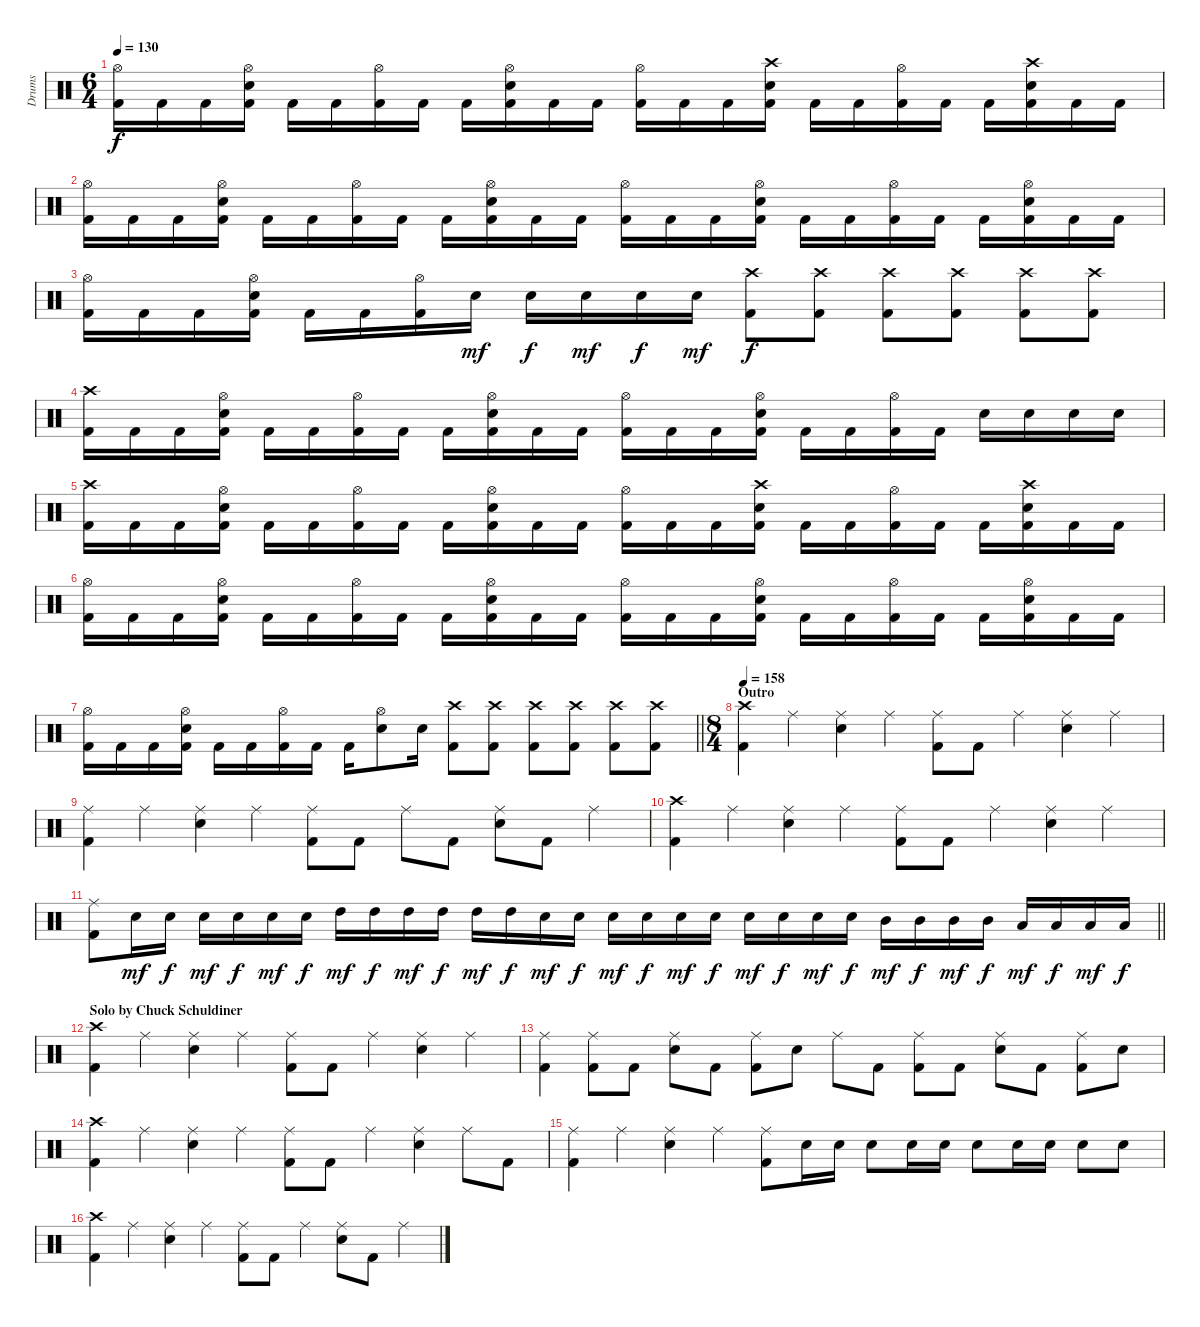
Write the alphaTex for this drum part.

\track ("Drums" "Drums") {instrument percussion}
\staff {score}
\articulation defaults
\ts (6 4)
\tempo 130
\clef neutral
\ks c
("Hi-Hat (open)" "Kick (hit) 2").16{dy f} "Kick (hit) 2".16 "Kick (hit) 2".16 ("Hi-Hat (open)" "Snare (hit) 2" "Kick (hit) 2").16 "Kick (hit) 2".16 "Kick (hit) 2".16 ("Hi-Hat (open)" "Kick (hit) 2").16 "Kick (hit) 2".16 "Kick (hit) 2".16 ("Hi-Hat (open)" "Snare (hit) 2" "Kick (hit) 2").16 "Kick (hit) 2".16 "Kick (hit) 2".16 ("Hi-Hat (open)" "Kick (hit) 2").16 "Kick (hit) 2".16 "Kick (hit) 2".16 ("Crash high (hit)" "Snare (hit) 2" "Kick (hit) 2").16 "Kick (hit) 2".16 "Kick (hit) 2".16 ("Hi-Hat (open)" "Kick (hit) 2").16 "Kick (hit) 2".16 "Kick (hit) 2".16 ("Crash high (hit)" "Snare (hit) 2" "Kick (hit) 2").16 "Kick (hit) 2".16 "Kick (hit) 2".16 |
("Hi-Hat (open)" "Kick (hit) 2").16 "Kick (hit) 2".16 "Kick (hit) 2".16 ("Hi-Hat (open)" "Snare (hit) 2" "Kick (hit) 2").16 "Kick (hit) 2".16 "Kick (hit) 2".16 ("Hi-Hat (open)" "Kick (hit) 2").16 "Kick (hit) 2".16 "Kick (hit) 2".16 ("Hi-Hat (open)" "Snare (hit) 2" "Kick (hit) 2").16 "Kick (hit) 2".16 "Kick (hit) 2".16 ("Hi-Hat (open)" "Kick (hit) 2").16 "Kick (hit) 2".16 "Kick (hit) 2".16 ("Hi-Hat (open)" "Snare (hit) 2" "Kick (hit) 2").16 "Kick (hit) 2".16 "Kick (hit) 2".16 ("Hi-Hat (open)" "Kick (hit) 2").16 "Kick (hit) 2".16 "Kick (hit) 2".16 ("Hi-Hat (open)" "Snare (hit) 2" "Kick (hit) 2").16 "Kick (hit) 2".16 "Kick (hit) 2".16 |
("Hi-Hat (open)" "Kick (hit) 2").16 "Kick (hit) 2".16 "Kick (hit) 2".16 ("Hi-Hat (open)" "Snare (hit) 2" "Kick (hit) 2").16 "Kick (hit) 2".16 "Kick (hit) 2".16 ("Hi-Hat (open)" "Kick (hit) 2").16 "Snare (hit) 2".16{dy mf} "Snare (hit) 2".16{dy f} "Snare (hit) 2".16{dy mf} "Snare (hit) 2".16{dy f} "Snare (hit) 2".16{dy mf} ("Crash high (hit)" "Kick (hit) 2").8{dy f} ("Crash high (hit)" "Kick (hit) 2").8 ("Crash high (hit)" "Kick (hit) 2").8 ("Crash high (hit)" "Kick (hit) 2").8 ("Crash high (hit)" "Kick (hit) 2").8 ("Crash high (hit)" "Kick (hit) 2").8 |
("Crash high (hit)" "Kick (hit) 2").16 "Kick (hit) 2".16 "Kick (hit) 2".16 ("Hi-Hat (open)" "Snare (hit) 2" "Kick (hit) 2").16 "Kick (hit) 2".16 "Kick (hit) 2".16 ("Hi-Hat (open)" "Kick (hit) 2").16 "Kick (hit) 2".16 "Kick (hit) 2".16 ("Hi-Hat (open)" "Snare (hit) 2" "Kick (hit) 2").16 "Kick (hit) 2".16 "Kick (hit) 2".16 ("Hi-Hat (open)" "Kick (hit) 2").16 "Kick (hit) 2".16 "Kick (hit) 2".16 ("Hi-Hat (open)" "Snare (hit) 2" "Kick (hit) 2").16 "Kick (hit) 2".16 "Kick (hit) 2".16 ("Hi-Hat (open)" "Kick (hit) 2").16 "Kick (hit) 2".16 "Snare (hit) 2".16 "Snare (hit) 2".16 "Snare (hit) 2".16 "Snare (hit) 2".16 |
("Crash high (hit)" "Kick (hit) 2").16 "Kick (hit) 2".16 "Kick (hit) 2".16 ("Hi-Hat (open)" "Snare (hit) 2" "Kick (hit) 2").16 "Kick (hit) 2".16 "Kick (hit) 2".16 ("Hi-Hat (open)" "Kick (hit) 2").16 "Kick (hit) 2".16 "Kick (hit) 2".16 ("Hi-Hat (open)" "Snare (hit) 2" "Kick (hit) 2").16 "Kick (hit) 2".16 "Kick (hit) 2".16 ("Hi-Hat (open)" "Kick (hit) 2").16 "Kick (hit) 2".16 "Kick (hit) 2".16 ("Crash high (hit)" "Snare (hit) 2" "Kick (hit) 2").16 "Kick (hit) 2".16 "Kick (hit) 2".16 ("Hi-Hat (open)" "Kick (hit) 2").16 "Kick (hit) 2".16 "Kick (hit) 2".16 ("Crash high (hit)" "Snare (hit) 2" "Kick (hit) 2").16 "Kick (hit) 2".16 "Kick (hit) 2".16 |
("Hi-Hat (open)" "Kick (hit) 2").16 "Kick (hit) 2".16 "Kick (hit) 2".16 ("Hi-Hat (open)" "Snare (hit) 2" "Kick (hit) 2").16 "Kick (hit) 2".16 "Kick (hit) 2".16 ("Hi-Hat (open)" "Kick (hit) 2").16 "Kick (hit) 2".16 "Kick (hit) 2".16 ("Hi-Hat (open)" "Snare (hit) 2" "Kick (hit) 2").16 "Kick (hit) 2".16 "Kick (hit) 2".16 ("Hi-Hat (open)" "Kick (hit) 2").16 "Kick (hit) 2".16 "Kick (hit) 2".16 ("Hi-Hat (open)" "Snare (hit) 2" "Kick (hit) 2").16 "Kick (hit) 2".16 "Kick (hit) 2".16 ("Hi-Hat (open)" "Kick (hit) 2").16 "Kick (hit) 2".16 "Kick (hit) 2".16 ("Hi-Hat (open)" "Snare (hit) 2" "Kick (hit) 2").16 "Kick (hit) 2".16 "Kick (hit) 2".16 |
\barLineRight lightlight
("Hi-Hat (open)" "Kick (hit) 2").16 "Kick (hit) 2".16 "Kick (hit) 2".16 ("Hi-Hat (open)" "Snare (hit) 2" "Kick (hit) 2").16 "Kick (hit) 2".16 "Kick (hit) 2".16 ("Hi-Hat (open)" "Kick (hit) 2").16 "Kick (hit) 2".16 "Kick (hit) 2".16 ("Hi-Hat (open)" "Snare (hit) 2").8 "Snare (hit) 2".16 ("Crash high (hit)" "Kick (hit) 2").8 ("Crash high (hit)" "Kick (hit) 2").8 ("Crash high (hit)" "Kick (hit) 2").8 ("Crash high (hit)" "Kick (hit) 2").8 ("Crash high (hit)" "Kick (hit) 2").8 ("Crash high (hit)" "Kick (hit) 2").8 |
\ts (8 4)
\section ("" "Outro")
\tempo 158
("Crash high (hit)" "Kick (hit) 2").4 "Ride (middle)".4 ("Ride (middle)" "Snare (hit) 2").4 "Ride (middle)".4 ("Ride (middle)" "Kick (hit) 2").8 "Kick (hit) 2".8 "Ride (middle)".4 ("Ride (middle)" "Snare (hit) 2").4 "Ride (middle)".4 |
("Ride (middle)" "Kick (hit) 2").4 "Ride (middle)".4 ("Ride (middle)" "Snare (hit) 2").4 "Ride (middle)".4 ("Ride (middle)" "Kick (hit) 2").8 "Kick (hit) 2".8 "Ride (middle)".8 "Kick (hit) 2".8 ("Ride (middle)" "Snare (hit) 2").8 "Kick (hit) 2".8 "Ride (middle)".4 |
("Crash high (hit)" "Kick (hit) 2").4 "Ride (middle)".4 ("Ride (middle)" "Snare (hit) 2").4 "Ride (middle)".4 ("Ride (middle)" "Kick (hit) 2").8 "Kick (hit) 2".8 "Ride (middle)".4 ("Ride (middle)" "Snare (hit) 2").4 "Ride (middle)".4 |
\barLineRight lightlight
("Ride (middle)" "Kick (hit) 2").8 "Snare (hit) 2".16{dy mf} "Snare (hit) 2".16{dy f} "Snare (hit) 2".16{dy mf} "Snare (hit) 2".16{dy f} "Snare (hit) 2".16{dy mf} "Snare (hit) 2".16{dy f} "High Tom (hit)".16{dy mf} "High Tom (hit)".16{dy f} "High Tom (hit)".16{dy mf} "High Tom (hit)".16{dy f} "High Tom (hit)".16{dy mf} "High Tom (hit)".16{dy f} "Snare (hit) 2".16{dy mf} "Snare (hit) 2".16{dy f} "Snare (hit) 2".16{dy mf} "Snare (hit) 2".16{dy f} "Snare (hit) 2".16{dy mf} "Snare (hit) 2".16{dy f} "Snare (hit) 2".16{dy mf} "Snare (hit) 2".16{dy f} "Snare (hit) 2".16{dy mf} "Snare (hit) 2".16{dy f} "Mid Tom (hit)".16{dy mf} "Mid Tom (hit)".16{dy f} "Mid Tom (hit)".16{dy mf} "Mid Tom (hit)".16{dy f} "Low Tom (hit)".16{dy mf} "Low Tom (hit)".16{dy f} "Low Tom (hit)".16{dy mf} "Low Tom (hit)".16{dy f} |
\section ("" "Solo by Chuck Schuldiner")
("Crash high (hit)" "Kick (hit) 2").4 "Ride (middle)".4 ("Ride (middle)" "Snare (hit) 2").4 "Ride (middle)".4 ("Ride (middle)" "Kick (hit) 2").8 "Kick (hit) 2".8 "Ride (middle)".4 ("Ride (middle)" "Snare (hit) 2").4 "Ride (middle)".4 |
("Ride (middle)" "Kick (hit) 2").4 ("Ride (middle)" "Kick (hit) 2").8 "Kick (hit) 2".8 ("Ride (middle)" "Snare (hit) 2").8 "Kick (hit) 2".8 ("Ride (middle)" "Kick (hit) 2").8 "Snare (hit) 2".8 "Ride (middle)".8 "Kick (hit) 2".8 ("Ride (middle)" "Kick (hit) 2").8 "Kick (hit) 2".8 ("Ride (middle)" "Snare (hit) 2").8 "Kick (hit) 2".8 ("Ride (middle)" "Kick (hit) 2").8 "Snare (hit) 2".8 |
("Crash high (hit)" "Kick (hit) 2").4 "Ride (middle)".4 ("Ride (middle)" "Snare (hit) 2").4 "Ride (middle)".4 ("Ride (middle)" "Kick (hit) 2").8 "Kick (hit) 2".8 "Ride (middle)".4 ("Ride (middle)" "Snare (hit) 2").4 "Ride (middle)".8 "Kick (hit) 2".8 |
("Ride (middle)" "Kick (hit) 2").4 "Ride (middle)".4 ("Ride (middle)" "Snare (hit) 2").4 "Ride (middle)".4 ("Ride (middle)" "Kick (hit) 2").8 "Snare (hit) 2".16 "Snare (hit) 2".16 "Snare (hit) 2".8 "Snare (hit) 2".16 "Snare (hit) 2".16 "Snare (hit) 2".8 "Snare (hit) 2".16 "Snare (hit) 2".16 "Snare (hit) 2".8 "Snare (hit) 2".8 |
("Crash high (hit)" "Kick (hit) 2").4 "Ride (middle)".4 ("Ride (middle)" "Snare (hit) 2").4 "Ride (middle)".4 ("Ride (middle)" "Kick (hit) 2").8 "Kick (hit) 2".8 "Ride (middle)".4 ("Ride (middle)" "Snare (hit) 2").8 "Kick (hit) 2".8 "Ride (middle)".4
